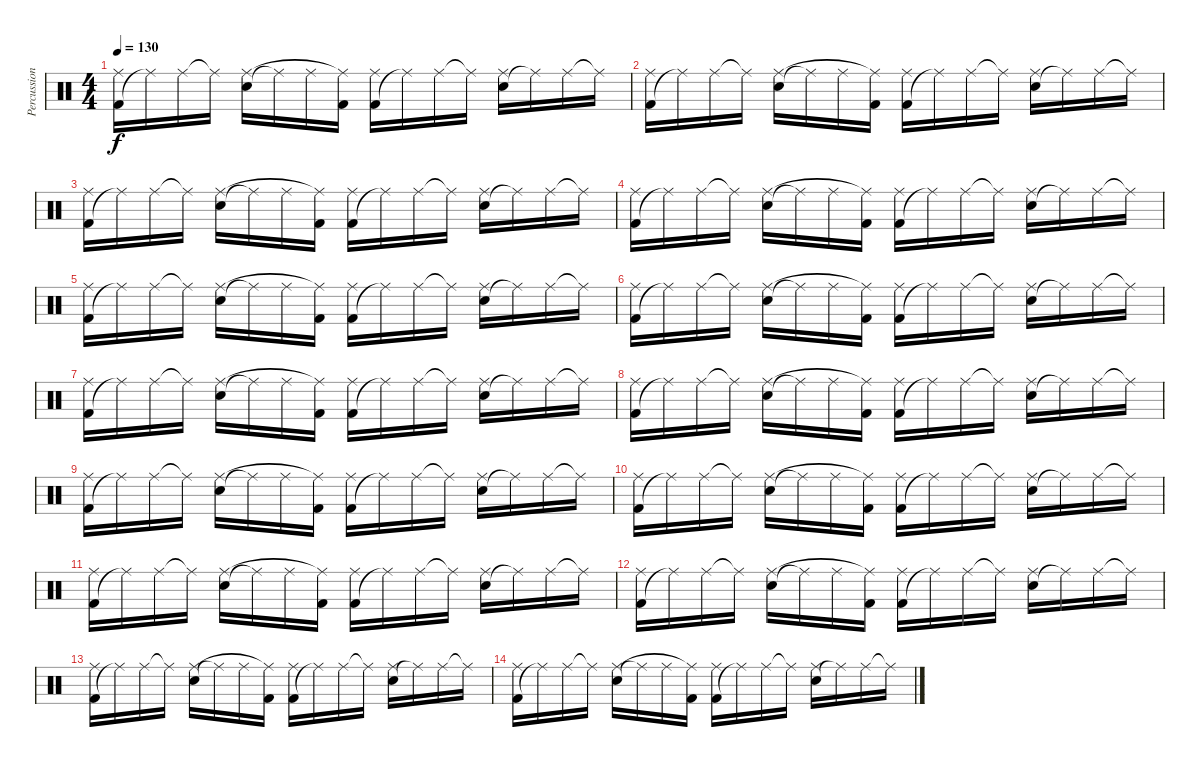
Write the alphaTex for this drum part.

\track ("Percussion" "Percussion") {instrument percussion}
\staff {score}
\articulation defaults
\ts (4 4)
\tempo 130
\clef neutral
\ks c
("Kick (hit) 2" "Ride (middle)").16{dy f} "Ride (middle)"{t}.16 "Ride (middle)".16 "Ride (middle)"{t}.16 ("Snare (hit) 2" "Ride (middle)").16 "Ride (middle)"{t}.16 "Ride (middle)".16 ("Kick (hit) 2" "Ride (middle)"{t}).16 ("Kick (hit) 2" "Ride (middle)").16 "Ride (middle)"{t}.16 "Ride (middle)".16 "Ride (middle)"{t}.16 ("Snare (hit) 2" "Ride (middle)").16 "Ride (middle)"{t}.16 "Ride (middle)".16 "Ride (middle)"{t}.16 |
("Kick (hit) 2" "Ride (middle)").16 "Ride (middle)"{t}.16 "Ride (middle)".16 "Ride (middle)"{t}.16 ("Snare (hit) 2" "Ride (middle)").16 "Ride (middle)"{t}.16 "Ride (middle)".16 ("Kick (hit) 2" "Ride (middle)"{t}).16 ("Kick (hit) 2" "Ride (middle)").16 "Ride (middle)"{t}.16 "Ride (middle)".16 "Ride (middle)"{t}.16 ("Snare (hit) 2" "Ride (middle)").16 "Ride (middle)"{t}.16 "Ride (middle)".16 "Ride (middle)"{t}.16 |
("Kick (hit) 2" "Ride (middle)").16 "Ride (middle)"{t}.16 "Ride (middle)".16 "Ride (middle)"{t}.16 ("Snare (hit) 2" "Ride (middle)").16 "Ride (middle)"{t}.16 "Ride (middle)".16 ("Kick (hit) 2" "Ride (middle)"{t}).16 ("Kick (hit) 2" "Ride (middle)").16 "Ride (middle)"{t}.16 "Ride (middle)".16 "Ride (middle)"{t}.16 ("Snare (hit) 2" "Ride (middle)").16 "Ride (middle)"{t}.16 "Ride (middle)".16 "Ride (middle)"{t}.16 |
("Kick (hit) 2" "Ride (middle)").16 "Ride (middle)"{t}.16 "Ride (middle)".16 "Ride (middle)"{t}.16 ("Snare (hit) 2" "Ride (middle)").16 "Ride (middle)"{t}.16 "Ride (middle)".16 ("Kick (hit) 2" "Ride (middle)"{t}).16 ("Kick (hit) 2" "Ride (middle)").16 "Ride (middle)"{t}.16 "Ride (middle)".16 "Ride (middle)"{t}.16 ("Snare (hit) 2" "Ride (middle)").16 "Ride (middle)"{t}.16 "Ride (middle)".16 "Ride (middle)"{t}.16 |
("Kick (hit) 2" "Ride (middle)").16 "Ride (middle)"{t}.16 "Ride (middle)".16 "Ride (middle)"{t}.16 ("Snare (hit) 2" "Ride (middle)").16 "Ride (middle)"{t}.16 "Ride (middle)".16 ("Kick (hit) 2" "Ride (middle)"{t}).16 ("Kick (hit) 2" "Ride (middle)").16 "Ride (middle)"{t}.16 "Ride (middle)".16 "Ride (middle)"{t}.16 ("Snare (hit) 2" "Ride (middle)").16 "Ride (middle)"{t}.16 "Ride (middle)".16 "Ride (middle)"{t}.16 |
("Kick (hit) 2" "Ride (middle)").16 "Ride (middle)"{t}.16 "Ride (middle)".16 "Ride (middle)"{t}.16 ("Snare (hit) 2" "Ride (middle)").16 "Ride (middle)"{t}.16 "Ride (middle)".16 ("Kick (hit) 2" "Ride (middle)"{t}).16 ("Kick (hit) 2" "Ride (middle)").16 "Ride (middle)"{t}.16 "Ride (middle)".16 "Ride (middle)"{t}.16 ("Snare (hit) 2" "Ride (middle)").16 "Ride (middle)"{t}.16 "Ride (middle)".16 "Ride (middle)"{t}.16 |
("Kick (hit) 2" "Ride (middle)").16 "Ride (middle)"{t}.16 "Ride (middle)".16 "Ride (middle)"{t}.16 ("Snare (hit) 2" "Ride (middle)").16 "Ride (middle)"{t}.16 "Ride (middle)".16 ("Kick (hit) 2" "Ride (middle)"{t}).16 ("Kick (hit) 2" "Ride (middle)").16 "Ride (middle)"{t}.16 "Ride (middle)".16 "Ride (middle)"{t}.16 ("Snare (hit) 2" "Ride (middle)").16 "Ride (middle)"{t}.16 "Ride (middle)".16 "Ride (middle)"{t}.16 |
("Kick (hit) 2" "Ride (middle)").16 "Ride (middle)"{t}.16 "Ride (middle)".16 "Ride (middle)"{t}.16 ("Snare (hit) 2" "Ride (middle)").16 "Ride (middle)"{t}.16 "Ride (middle)".16 ("Kick (hit) 2" "Ride (middle)"{t}).16 ("Kick (hit) 2" "Ride (middle)").16 "Ride (middle)"{t}.16 "Ride (middle)".16 "Ride (middle)"{t}.16 ("Snare (hit) 2" "Ride (middle)").16 "Ride (middle)"{t}.16 "Ride (middle)".16 "Ride (middle)"{t}.16 |
("Kick (hit) 2" "Ride (middle)").16 "Ride (middle)"{t}.16 "Ride (middle)".16 "Ride (middle)"{t}.16 ("Snare (hit) 2" "Ride (middle)").16 "Ride (middle)"{t}.16 "Ride (middle)".16 ("Kick (hit) 2" "Ride (middle)"{t}).16 ("Kick (hit) 2" "Ride (middle)").16 "Ride (middle)"{t}.16 "Ride (middle)".16 "Ride (middle)"{t}.16 ("Snare (hit) 2" "Ride (middle)").16 "Ride (middle)"{t}.16 "Ride (middle)".16 "Ride (middle)"{t}.16 |
("Kick (hit) 2" "Ride (middle)").16 "Ride (middle)"{t}.16 "Ride (middle)".16 "Ride (middle)"{t}.16 ("Snare (hit) 2" "Ride (middle)").16 "Ride (middle)"{t}.16 "Ride (middle)".16 ("Kick (hit) 2" "Ride (middle)"{t}).16 ("Kick (hit) 2" "Ride (middle)").16 "Ride (middle)"{t}.16 "Ride (middle)".16 "Ride (middle)"{t}.16 ("Snare (hit) 2" "Ride (middle)").16 "Ride (middle)"{t}.16 "Ride (middle)".16 "Ride (middle)"{t}.16 |
("Kick (hit) 2" "Ride (middle)").16 "Ride (middle)"{t}.16 "Ride (middle)".16 "Ride (middle)"{t}.16 ("Snare (hit) 2" "Ride (middle)").16 "Ride (middle)"{t}.16 "Ride (middle)".16 ("Kick (hit) 2" "Ride (middle)"{t}).16 ("Kick (hit) 2" "Ride (middle)").16 "Ride (middle)"{t}.16 "Ride (middle)".16 "Ride (middle)"{t}.16 ("Snare (hit) 2" "Ride (middle)").16 "Ride (middle)"{t}.16 "Ride (middle)".16 "Ride (middle)"{t}.16 |
("Kick (hit) 2" "Ride (middle)").16 "Ride (middle)"{t}.16 "Ride (middle)".16 "Ride (middle)"{t}.16 ("Snare (hit) 2" "Ride (middle)").16 "Ride (middle)"{t}.16 "Ride (middle)".16 ("Kick (hit) 2" "Ride (middle)"{t}).16 ("Kick (hit) 2" "Ride (middle)").16 "Ride (middle)"{t}.16 "Ride (middle)".16 "Ride (middle)"{t}.16 ("Snare (hit) 2" "Ride (middle)").16 "Ride (middle)"{t}.16 "Ride (middle)".16 "Ride (middle)"{t}.16 |
("Kick (hit) 2" "Ride (middle)").16 "Ride (middle)"{t}.16 "Ride (middle)".16 "Ride (middle)"{t}.16 ("Snare (hit) 2" "Ride (middle)").16 "Ride (middle)"{t}.16 "Ride (middle)".16 ("Kick (hit) 2" "Ride (middle)"{t}).16 ("Kick (hit) 2" "Ride (middle)").16 "Ride (middle)"{t}.16 "Ride (middle)".16 "Ride (middle)"{t}.16 ("Snare (hit) 2" "Ride (middle)").16 "Ride (middle)"{t}.16 "Ride (middle)".16 "Ride (middle)"{t}.16 |
("Kick (hit) 2" "Ride (middle)").16 "Ride (middle)"{t}.16 "Ride (middle)".16 "Ride (middle)"{t}.16 ("Snare (hit) 2" "Ride (middle)").16 "Ride (middle)"{t}.16 "Ride (middle)".16 ("Kick (hit) 2" "Ride (middle)"{t}).16 ("Kick (hit) 2" "Ride (middle)").16 "Ride (middle)"{t}.16 "Ride (middle)".16 "Ride (middle)"{t}.16 ("Snare (hit) 2" "Ride (middle)").16 "Ride (middle)"{t}.16 "Ride (middle)".16 "Ride (middle)"{t}.16
